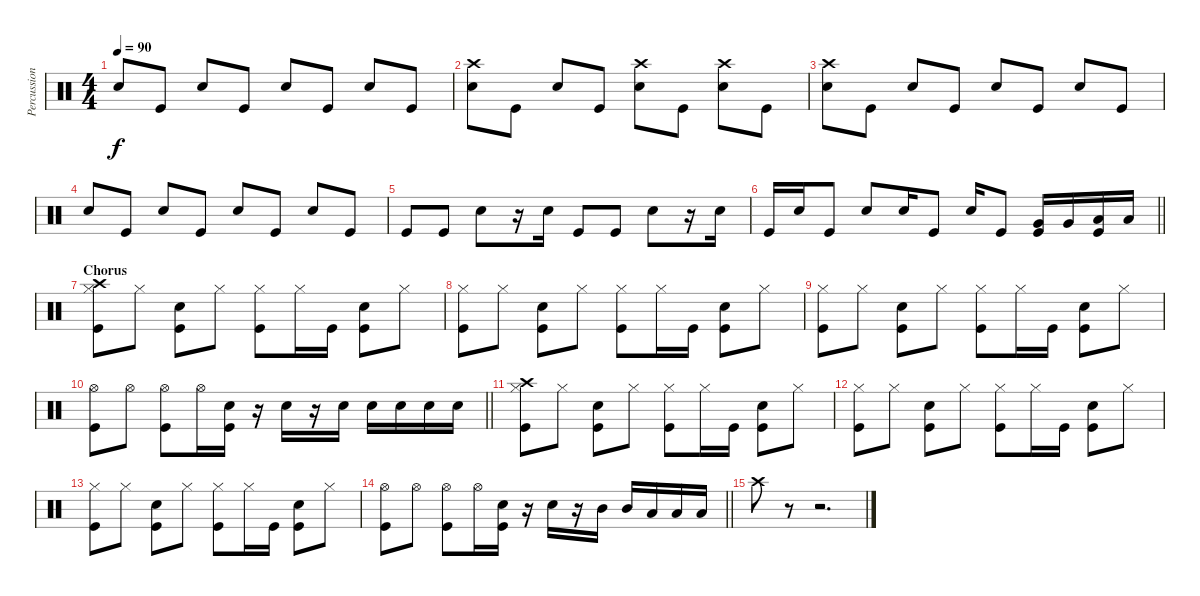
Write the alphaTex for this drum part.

\track ("Percussion" "Percussion") {instrument percussion}
\staff {score}
\articulation defaults
\ts (4 4)
\tempo 90
\clef neutral
\ks c "Snare (hit) 2".8{dy f} "Kick (hit)".8 "Snare (hit) 2".8 "Kick (hit)".8 "Snare (hit) 2".8 "Kick (hit)".8 "Snare (hit) 2".8 "Kick (hit)".8
|
("Crash high (hit)" "Snare (hit) 2").8 "Kick (hit)".8 "Snare (hit) 2".8 "Kick (hit)".8 ("Crash high (hit)" "Snare (hit) 2").8 "Kick (hit)".8 ("Crash high (hit)" "Snare (hit) 2").8 "Kick (hit)".8 |
("Crash high (hit)" "Snare (hit) 2").8 "Kick (hit)".8 "Snare (hit) 2".8 "Kick (hit)".8 "Snare (hit) 2".8 "Kick (hit)".8 "Snare (hit) 2".8 "Kick (hit)".8 |
"Snare (hit) 2".8 "Kick (hit)".8 "Snare (hit) 2".8 "Kick (hit)".8 "Snare (hit) 2".8 "Kick (hit)".8 "Snare (hit) 2".8 "Kick (hit)".8 |
"Kick (hit)".8 "Kick (hit)".8 "Snare (hit) 2".8 r.16 "Snare (hit) 2".16 "Kick (hit)".8 "Kick (hit)".8 "Snare (hit) 2".8 r.16 "Snare (hit) 2".16 |
\barLineRight lightlight "Kick (hit)".16 "Snare (hit) 2".16 "Kick (hit)".8 "Snare (hit) 2".8 "Snare (hit) 2".16 "Kick (hit)".8 "Snare (hit) 2".16 "Kick (hit)".8
("Very Low Tom (hit)" "Kick (hit)").16 "Very Low Tom (hit)".16 ("Low Floor Tom (hit)" "Kick (hit)").16 "Low Floor Tom (hit)".16 |
\section ("" "Chorus")
("Crash high (hit)" "Hi-Hat (closed)" "Kick (hit)").8 "Hi-Hat (closed)".8 ("Snare (hit) 2" "Kick (hit)").8 "Hi-Hat (closed)".8 ("Hi-Hat (closed)" "Kick (hit)").8 "Hi-Hat (closed)".16 "Kick (hit)".16 ("Snare (hit) 2" "Kick (hit)").8 "Hi-Hat (closed)".8 |
("Hi-Hat (closed)" "Kick (hit)").8 "Hi-Hat (closed)".8 ("Snare (hit) 2" "Kick (hit)").8 "Hi-Hat (closed)".8 ("Hi-Hat (closed)" "Kick (hit)").8 "Hi-Hat (closed)".16 "Kick (hit)".16 ("Snare (hit) 2" "Kick (hit)").8 "Hi-Hat (closed)".8 |
("Hi-Hat (closed)" "Kick (hit)").8 "Hi-Hat (closed)".8 ("Snare (hit) 2" "Kick (hit)").8 "Hi-Hat (closed)".8 ("Hi-Hat (closed)" "Kick (hit)").8 "Hi-Hat (closed)".16 "Kick (hit)".16 ("Snare (hit) 2" "Kick (hit)").8 "Hi-Hat (closed)".8 |
\barLineRight lightlight
("Hi-Hat (open)" "Kick (hit)").8 "Hi-Hat (open)".8 ("Hi-Hat (open)" "Kick (hit)").8 "Hi-Hat (open)".16 ("Snare (hit) 2" "Kick (hit)").16 r.16 "Snare (hit) 2".16 r.16 "Snare (hit) 2".16 "Snare (hit) 2".16 "Snare (hit) 2".16 "Snare (hit) 2".16 "Snare (hit) 2".16 |
("Crash high (hit)" "Hi-Hat (closed)" "Kick (hit)").8 "Hi-Hat (closed)".8 ("Snare (hit) 2" "Kick (hit)").8 "Hi-Hat (closed)".8 ("Hi-Hat (closed)" "Kick (hit)").8 "Hi-Hat (closed)".16 "Kick (hit)".16 ("Snare (hit) 2" "Kick (hit)").8 "Hi-Hat (closed)".8 |
("Hi-Hat (closed)" "Kick (hit)").8 "Hi-Hat (closed)".8 ("Snare (hit) 2" "Kick (hit)").8 "Hi-Hat (closed)".8 ("Hi-Hat (closed)" "Kick (hit)").8 "Hi-Hat (closed)".16 "Kick (hit)".16 ("Snare (hit) 2" "Kick (hit)").8 "Hi-Hat (closed)".8 |
("Hi-Hat (closed)" "Kick (hit)").8 "Hi-Hat (closed)".8 ("Snare (hit) 2" "Kick (hit)").8 "Hi-Hat (closed)".8 ("Hi-Hat (closed)" "Kick (hit)").8 "Hi-Hat (closed)".16 "Kick (hit)".16 ("Snare (hit) 2" "Kick (hit)").8 "Hi-Hat (closed)".8 |
\barLineRight lightlight
("Hi-Hat (open)" "Kick (hit)").8 "Hi-Hat (open)".8 ("Hi-Hat (open)" "Kick (hit)").8 "Hi-Hat (open)".16 ("Snare (hit) 2" "Kick (hit)").16 r.16 "Snare (hit) 2".16 r.16 "Mid Tom (hit)".16 "Mid Tom (hit)".16 "Low Tom (hit)".16 "Low Tom (hit)".16 "Low Floor Tom (hit)".16 |
"Crash high (hit)".8 r.8 r.2{d}
